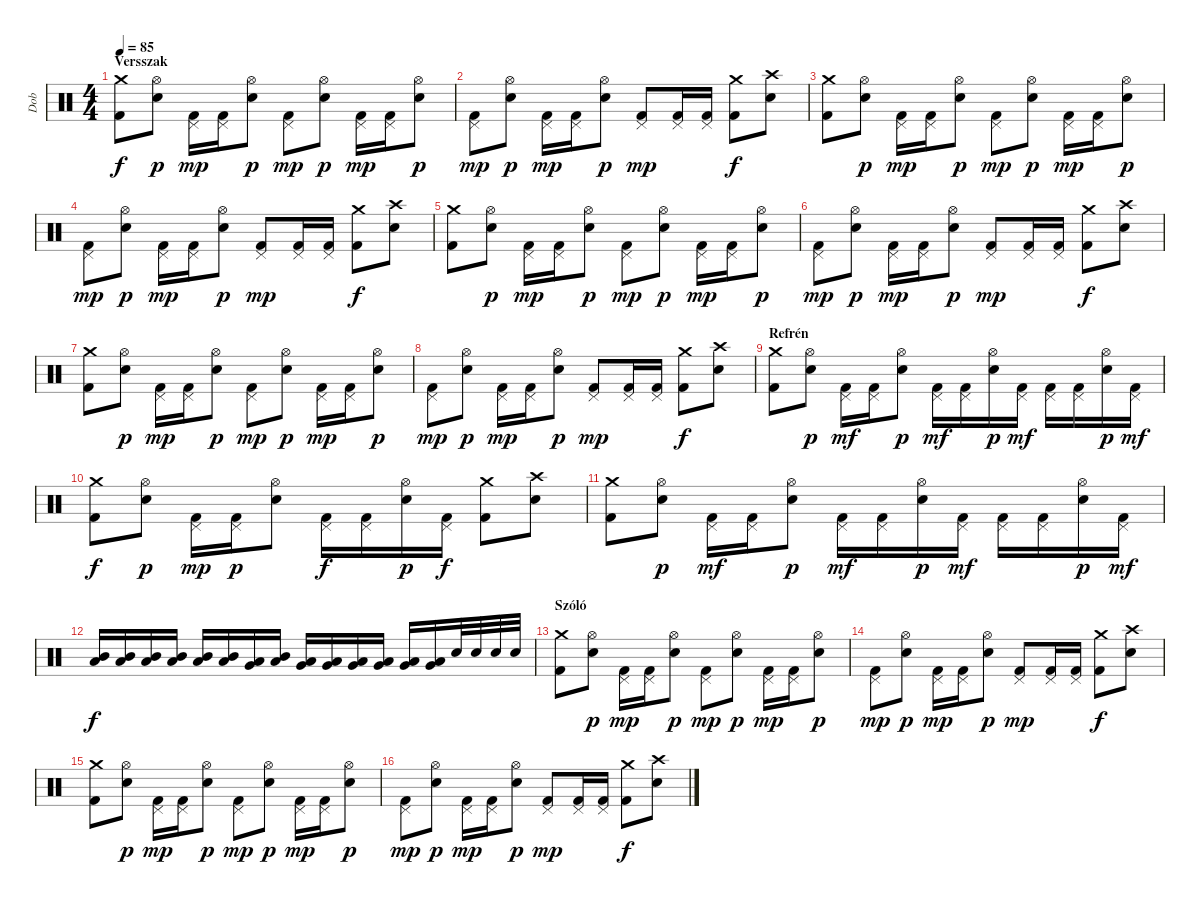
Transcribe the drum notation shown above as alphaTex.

\track ("Dob" "Dob") {instrument percussion}
\staff {score}
\articulation defaults
\ts (4 4)
\section ("" "Versszak")
\tempo 85
\clef neutral
\ks c
("Kick (hit) 2" "Crash medium (hit)").8{dy f} ("Snare (hit) 2" "Hi-Hat (open)").8{dy p} ("Kick (hit) 2" "Pedal Hi-Hat (hit)").16{dy mp} ("Kick (hit) 2" "Pedal Hi-Hat (hit)").16 ("Snare (hit) 2" "Hi-Hat (open)").8{dy p} ("Kick (hit) 2" "Pedal Hi-Hat (hit)").8{dy mp} ("Snare (hit) 2" "Hi-Hat (open)").8{dy p} ("Kick (hit) 2" "Pedal Hi-Hat (hit)").16{dy mp} ("Kick (hit) 2" "Pedal Hi-Hat (hit)").16 ("Snare (hit) 2" "Hi-Hat (open)").8{dy p} |
("Kick (hit) 2" "Pedal Hi-Hat (hit)").8{dy mp} ("Snare (hit) 2" "Hi-Hat (open)").8{dy p} ("Kick (hit) 2" "Pedal Hi-Hat (hit)").16{dy mp} ("Kick (hit) 2" "Pedal Hi-Hat (hit)").16 ("Snare (hit) 2" "Hi-Hat (open)").8{dy p} ("Kick (hit) 2" "Pedal Hi-Hat (hit)").8{dy mp} ("Kick (hit) 2" "Pedal Hi-Hat (hit)").16 ("Kick (hit) 2" "Pedal Hi-Hat (hit)").16 ("Kick (hit) 2" "Crash medium (hit)").8{dy f} ("Snare (hit) 2" "Crash high (hit)").8 |
("Kick (hit) 2" "Crash medium (hit)").8 ("Snare (hit) 2" "Hi-Hat (open)").8{dy p} ("Kick (hit) 2" "Pedal Hi-Hat (hit)").16{dy mp} ("Kick (hit) 2" "Pedal Hi-Hat (hit)").16 ("Snare (hit) 2" "Hi-Hat (open)").8{dy p} ("Kick (hit) 2" "Pedal Hi-Hat (hit)").8{dy mp} ("Snare (hit) 2" "Hi-Hat (open)").8{dy p} ("Kick (hit) 2" "Pedal Hi-Hat (hit)").16{dy mp} ("Kick (hit) 2" "Pedal Hi-Hat (hit)").16 ("Snare (hit) 2" "Hi-Hat (open)").8{dy p} |
("Kick (hit) 2" "Pedal Hi-Hat (hit)").8{dy mp} ("Snare (hit) 2" "Hi-Hat (open)").8{dy p} ("Kick (hit) 2" "Pedal Hi-Hat (hit)").16{dy mp} ("Kick (hit) 2" "Pedal Hi-Hat (hit)").16 ("Snare (hit) 2" "Hi-Hat (open)").8{dy p} ("Kick (hit) 2" "Pedal Hi-Hat (hit)").8{dy mp} ("Kick (hit) 2" "Pedal Hi-Hat (hit)").16 ("Kick (hit) 2" "Pedal Hi-Hat (hit)").16 ("Kick (hit) 2" "Crash medium (hit)").8{dy f} ("Snare (hit) 2" "Crash high (hit)").8 |
("Kick (hit) 2" "Crash medium (hit)").8 ("Snare (hit) 2" "Hi-Hat (open)").8{dy p} ("Kick (hit) 2" "Pedal Hi-Hat (hit)").16{dy mp} ("Kick (hit) 2" "Pedal Hi-Hat (hit)").16 ("Snare (hit) 2" "Hi-Hat (open)").8{dy p} ("Kick (hit) 2" "Pedal Hi-Hat (hit)").8{dy mp} ("Snare (hit) 2" "Hi-Hat (open)").8{dy p} ("Kick (hit) 2" "Pedal Hi-Hat (hit)").16{dy mp} ("Kick (hit) 2" "Pedal Hi-Hat (hit)").16 ("Snare (hit) 2" "Hi-Hat (open)").8{dy p} |
("Kick (hit) 2" "Pedal Hi-Hat (hit)").8{dy mp} ("Snare (hit) 2" "Hi-Hat (open)").8{dy p} ("Kick (hit) 2" "Pedal Hi-Hat (hit)").16{dy mp} ("Kick (hit) 2" "Pedal Hi-Hat (hit)").16 ("Snare (hit) 2" "Hi-Hat (open)").8{dy p} ("Kick (hit) 2" "Pedal Hi-Hat (hit)").8{dy mp} ("Kick (hit) 2" "Pedal Hi-Hat (hit)").16 ("Kick (hit) 2" "Pedal Hi-Hat (hit)").16 ("Kick (hit) 2" "Crash medium (hit)").8{dy f} ("Snare (hit) 2" "Crash high (hit)").8 |
("Kick (hit) 2" "Crash medium (hit)").8 ("Snare (hit) 2" "Hi-Hat (open)").8{dy p} ("Kick (hit) 2" "Pedal Hi-Hat (hit)").16{dy mp} ("Kick (hit) 2" "Pedal Hi-Hat (hit)").16 ("Snare (hit) 2" "Hi-Hat (open)").8{dy p} ("Kick (hit) 2" "Pedal Hi-Hat (hit)").8{dy mp} ("Snare (hit) 2" "Hi-Hat (open)").8{dy p} ("Kick (hit) 2" "Pedal Hi-Hat (hit)").16{dy mp} ("Kick (hit) 2" "Pedal Hi-Hat (hit)").16 ("Snare (hit) 2" "Hi-Hat (open)").8{dy p} |
("Kick (hit) 2" "Pedal Hi-Hat (hit)").8{dy mp} ("Snare (hit) 2" "Hi-Hat (open)").8{dy p} ("Kick (hit) 2" "Pedal Hi-Hat (hit)").16{dy mp} ("Kick (hit) 2" "Pedal Hi-Hat (hit)").16 ("Snare (hit) 2" "Hi-Hat (open)").8{dy p} ("Kick (hit) 2" "Pedal Hi-Hat (hit)").8{dy mp} ("Kick (hit) 2" "Pedal Hi-Hat (hit)").16 ("Kick (hit) 2" "Pedal Hi-Hat (hit)").16 ("Kick (hit) 2" "Crash medium (hit)").8{dy f} ("Snare (hit) 2" "Crash high (hit)").8 |
\section ("" "Refrén")
("Kick (hit) 2" "Crash medium (hit)").8 ("Snare (hit) 2" "Hi-Hat (open)").8{dy p} ("Kick (hit) 2" "Pedal Hi-Hat (hit)").16{dy mf} ("Kick (hit) 2" "Pedal Hi-Hat (hit)").16 ("Snare (hit) 2" "Hi-Hat (open)").8{dy p} ("Kick (hit) 2" "Pedal Hi-Hat (hit)").16{dy mf} ("Kick (hit) 2" "Pedal Hi-Hat (hit)").16 ("Snare (hit) 2" "Hi-Hat (open)").16{dy p} ("Kick (hit) 2" "Pedal Hi-Hat (hit)").16{dy mf} ("Kick (hit) 2" "Pedal Hi-Hat (hit)").16 ("Kick (hit) 2" "Pedal Hi-Hat (hit)").16 ("Snare (hit) 2" "Hi-Hat (open)").16{dy p} ("Kick (hit) 2" "Pedal Hi-Hat (hit)").16{dy mf} |
("Kick (hit) 2" "Crash medium (hit)").8{dy f} ("Snare (hit) 2" "Hi-Hat (open)").8{dy p} ("Kick (hit) 2" "Pedal Hi-Hat (hit)").16{dy mp} ("Kick (hit) 2" "Pedal Hi-Hat (hit)").16{dy p} ("Snare (hit) 2" "Hi-Hat (open)").8 ("Kick (hit) 2" "Pedal Hi-Hat (hit)").16{dy f} ("Kick (hit) 2" "Pedal Hi-Hat (hit)").16 ("Snare (hit) 2" "Hi-Hat (open)").16{dy p} ("Kick (hit) 2" "Pedal Hi-Hat (hit)").16{dy f} ("Kick (hit) 2" "Crash medium (hit)").8 ("Snare (hit) 2" "Crash high (hit)").8 |
("Kick (hit) 2" "Crash medium (hit)").8 ("Snare (hit) 2" "Hi-Hat (open)").8{dy p} ("Kick (hit) 2" "Pedal Hi-Hat (hit)").16{dy mf} ("Kick (hit) 2" "Pedal Hi-Hat (hit)").16 ("Snare (hit) 2" "Hi-Hat (open)").8{dy p} ("Kick (hit) 2" "Pedal Hi-Hat (hit)").16{dy mf} ("Kick (hit) 2" "Pedal Hi-Hat (hit)").16 ("Snare (hit) 2" "Hi-Hat (open)").16{dy p} ("Kick (hit) 2" "Pedal Hi-Hat (hit)").16{dy mf} ("Kick (hit) 2" "Pedal Hi-Hat (hit)").16 ("Kick (hit) 2" "Pedal Hi-Hat (hit)").16 ("Snare (hit) 2" "Hi-Hat (open)").16{dy p} ("Kick (hit) 2" "Pedal Hi-Hat (hit)").16{dy mf} |
("Mid Tom (hit)" "Low Tom (hit)").16{dy f} ("Mid Tom (hit)" "Low Tom (hit)").16 ("Mid Tom (hit)" "Low Tom (hit)").16 ("Mid Tom (hit)" "Low Tom (hit)").16 ("Mid Tom (hit)" "Low Tom (hit)").16 ("Mid Tom (hit)" "Low Tom (hit)").16 ("Low Tom (hit)" "Very Low Tom (hit)").16 ("Mid Tom (hit)" "Low Tom (hit)").16 ("Low Tom (hit)" "Very Low Tom (hit)").16 ("Low Tom (hit)" "Very Low Tom (hit)").16 ("Low Tom (hit)" "Very Low Tom (hit)").16 ("Low Tom (hit)" "Very Low Tom (hit)").16 ("Low Tom (hit)" "Very Low Tom (hit)").16 ("Low Tom (hit)" "Very Low Tom (hit)").16 "Snare (hit) 2".32 "Snare (hit) 2".32 "Snare (hit) 2".32 "Snare (hit) 2".32 |
\section ("" "Szóló")
("Kick (hit) 2" "Crash medium (hit)").8 ("Snare (hit) 2" "Hi-Hat (open)").8{dy p} ("Kick (hit) 2" "Pedal Hi-Hat (hit)").16{dy mp} ("Kick (hit) 2" "Pedal Hi-Hat (hit)").16 ("Snare (hit) 2" "Hi-Hat (open)").8{dy p} ("Kick (hit) 2" "Pedal Hi-Hat (hit)").8{dy mp} ("Snare (hit) 2" "Hi-Hat (open)").8{dy p} ("Kick (hit) 2" "Pedal Hi-Hat (hit)").16{dy mp} ("Kick (hit) 2" "Pedal Hi-Hat (hit)").16 ("Snare (hit) 2" "Hi-Hat (open)").8{dy p} |
("Kick (hit) 2" "Pedal Hi-Hat (hit)").8{dy mp} ("Snare (hit) 2" "Hi-Hat (open)").8{dy p} ("Kick (hit) 2" "Pedal Hi-Hat (hit)").16{dy mp} ("Kick (hit) 2" "Pedal Hi-Hat (hit)").16 ("Snare (hit) 2" "Hi-Hat (open)").8{dy p} ("Kick (hit) 2" "Pedal Hi-Hat (hit)").8{dy mp} ("Kick (hit) 2" "Pedal Hi-Hat (hit)").16 ("Kick (hit) 2" "Pedal Hi-Hat (hit)").16 ("Kick (hit) 2" "Crash medium (hit)").8{dy f} ("Snare (hit) 2" "Crash high (hit)").8 |
("Kick (hit) 2" "Crash medium (hit)").8 ("Snare (hit) 2" "Hi-Hat (open)").8{dy p} ("Kick (hit) 2" "Pedal Hi-Hat (hit)").16{dy mp} ("Kick (hit) 2" "Pedal Hi-Hat (hit)").16 ("Snare (hit) 2" "Hi-Hat (open)").8{dy p} ("Kick (hit) 2" "Pedal Hi-Hat (hit)").8{dy mp} ("Snare (hit) 2" "Hi-Hat (open)").8{dy p} ("Kick (hit) 2" "Pedal Hi-Hat (hit)").16{dy mp} ("Kick (hit) 2" "Pedal Hi-Hat (hit)").16 ("Snare (hit) 2" "Hi-Hat (open)").8{dy p} |
("Kick (hit) 2" "Pedal Hi-Hat (hit)").8{dy mp} ("Snare (hit) 2" "Hi-Hat (open)").8{dy p} ("Kick (hit) 2" "Pedal Hi-Hat (hit)").16{dy mp} ("Kick (hit) 2" "Pedal Hi-Hat (hit)").16 ("Snare (hit) 2" "Hi-Hat (open)").8{dy p} ("Kick (hit) 2" "Pedal Hi-Hat (hit)").8{dy mp} ("Kick (hit) 2" "Pedal Hi-Hat (hit)").16 ("Kick (hit) 2" "Pedal Hi-Hat (hit)").16 ("Kick (hit) 2" "Crash medium (hit)").8{dy f} ("Snare (hit) 2" "Crash high (hit)").8
